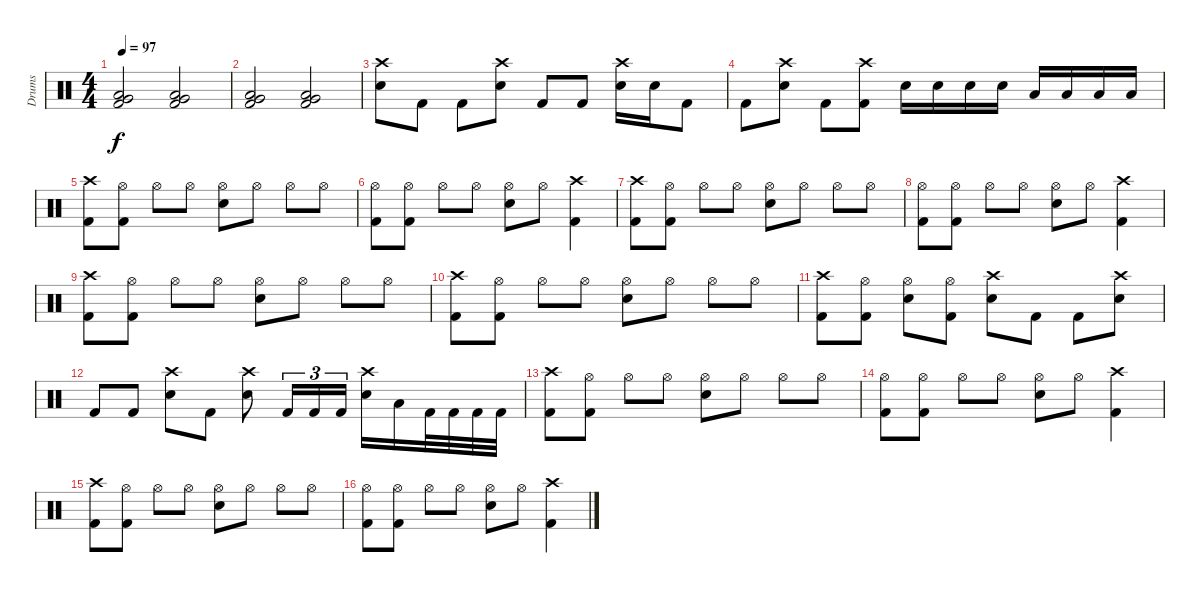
\track ("Drums" "Drums") {solo instrument percussion}
\staff {score}
\articulation defaults
\ts (4 4)
\tempo 97
\clef neutral
\ks c
("Kick (hit) 2" "Low Floor Tom (hit)" "Very Low Tom (hit)").2{dy f} ("Kick (hit) 2" "Low Floor Tom (hit)" "Very Low Tom (hit)").2 |
("Kick (hit) 2" "Low Floor Tom (hit)" "Very Low Tom (hit)").2 ("Kick (hit) 2" "Low Floor Tom (hit)" "Very Low Tom (hit)").2 |
("Crash high (hit)" "Electric Snare (hit)").8 "Kick (hit) 2".8 "Kick (hit) 2".8 ("Crash high (hit)" "Electric Snare (hit)").8 "Kick (hit) 2".8 "Kick (hit) 2".8 ("Crash high (hit)" "Electric Snare (hit)").16 "Electric Snare (hit)".16 "Kick (hit) 2".8 |
"Kick (hit) 2".8 ("Crash high (hit)" "Electric Snare (hit)").8 "Kick (hit) 2".8 ("Crash high (hit)" "Kick (hit) 2").8 "Electric Snare (hit)".16 "Electric Snare (hit)".16 "Electric Snare (hit)".16 "Electric Snare (hit)".16 "Low Floor Tom (hit)".16 "Low Floor Tom (hit)".16 "Low Floor Tom (hit)".16 "Low Floor Tom (hit)".16 |
("Crash high (hit)" "Kick (hit) 2").8 ("Hi-Hat (open)" "Kick (hit) 2").8 "Hi-Hat (open)".8 "Hi-Hat (open)".8 ("Hi-Hat (open)" "Electric Snare (hit)").8 "Hi-Hat (open)".8 "Hi-Hat (open)".8 "Hi-Hat (open)".8 |
("Hi-Hat (open)" "Kick (hit) 2").8 ("Hi-Hat (open)" "Kick (hit) 2").8 "Hi-Hat (open)".8 "Hi-Hat (open)".8 ("Hi-Hat (open)" "Electric Snare (hit)").8 "Hi-Hat (open)".8 ("Crash high (hit)" "Kick (hit) 2").4 |
("Crash high (hit)" "Kick (hit) 2").8 ("Hi-Hat (open)" "Kick (hit) 2").8 "Hi-Hat (open)".8 "Hi-Hat (open)".8 ("Hi-Hat (open)" "Electric Snare (hit)").8 "Hi-Hat (open)".8 "Hi-Hat (open)".8 "Hi-Hat (open)".8 |
("Hi-Hat (open)" "Kick (hit) 2").8 ("Hi-Hat (open)" "Kick (hit) 2").8 "Hi-Hat (open)".8 "Hi-Hat (open)".8 ("Hi-Hat (open)" "Electric Snare (hit)").8 "Hi-Hat (open)".8 ("Crash high (hit)" "Kick (hit) 2").4 |
("Crash high (hit)" "Kick (hit) 2").8 ("Hi-Hat (open)" "Kick (hit) 2").8 "Hi-Hat (open)".8 "Hi-Hat (open)".8 ("Hi-Hat (open)" "Electric Snare (hit)").8 "Hi-Hat (open)".8 "Hi-Hat (open)".8 "Hi-Hat (open)".8 |
("Crash high (hit)" "Kick (hit) 2").8 ("Hi-Hat (open)" "Kick (hit) 2").8 "Hi-Hat (open)".8 "Hi-Hat (open)".8 ("Hi-Hat (open)" "Electric Snare (hit)").8 "Hi-Hat (open)".8 "Hi-Hat (open)".8 "Hi-Hat (open)".8 |
("Crash high (hit)" "Kick (hit) 2").8 ("Hi-Hat (open)" "Kick (hit) 2").8 ("Hi-Hat (open)" "Electric Snare (hit)").8 ("Hi-Hat (open)" "Kick (hit) 2").8 ("Crash high (hit)" "Electric Snare (hit)").8 "Kick (hit) 2".8 "Kick (hit) 2".8 ("Crash high (hit)" "Electric Snare (hit)").8 |
"Kick (hit) 2".8 "Kick (hit) 2".8 ("Crash high (hit)" "Electric Snare (hit)").8 "Kick (hit) 2".8 ("Crash high (hit)" "Electric Snare (hit)").8 "Kick (hit) 2".16{tu (3 2)} "Kick (hit) 2".16{tu (3 2)} "Kick (hit) 2".16{tu (3 2)} ("Crash high (hit)" "Electric Snare (hit)").16 "Low Floor Tom (hit)".16 "Kick (hit) 2".32 "Kick (hit) 2".32 "Kick (hit) 2".32 "Kick (hit) 2".32 |
("Crash high (hit)" "Kick (hit) 2").8 ("Hi-Hat (open)" "Kick (hit) 2").8 "Hi-Hat (open)".8 "Hi-Hat (open)".8 ("Hi-Hat (open)" "Electric Snare (hit)").8 "Hi-Hat (open)".8 "Hi-Hat (open)".8 "Hi-Hat (open)".8 |
("Hi-Hat (open)" "Kick (hit) 2").8 ("Hi-Hat (open)" "Kick (hit) 2").8 "Hi-Hat (open)".8 "Hi-Hat (open)".8 ("Hi-Hat (open)" "Electric Snare (hit)").8 "Hi-Hat (open)".8 ("Crash high (hit)" "Kick (hit) 2").4 |
("Crash high (hit)" "Kick (hit) 2").8 ("Hi-Hat (open)" "Kick (hit) 2").8 "Hi-Hat (open)".8 "Hi-Hat (open)".8 ("Hi-Hat (open)" "Electric Snare (hit)").8 "Hi-Hat (open)".8 "Hi-Hat (open)".8 "Hi-Hat (open)".8 |
("Hi-Hat (open)" "Kick (hit) 2").8 ("Hi-Hat (open)" "Kick (hit) 2").8 "Hi-Hat (open)".8 "Hi-Hat (open)".8 ("Hi-Hat (open)" "Electric Snare (hit)").8 "Hi-Hat (open)".8 ("Crash high (hit)" "Kick (hit) 2").4
